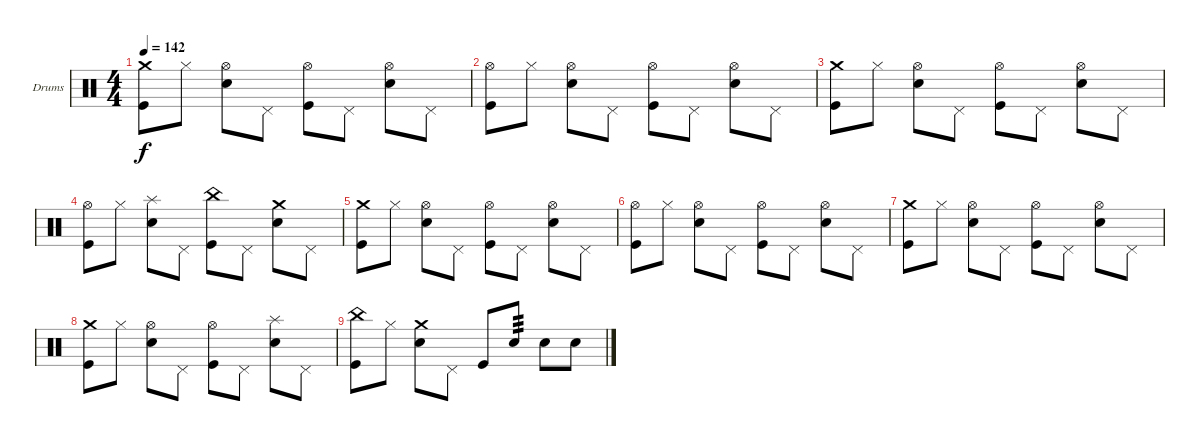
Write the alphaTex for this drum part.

\bracketExtendMode groupsimilarinstruments
\firstSystemTrackNameOrientation horizontal
\otherSystemsTrackNameOrientation horizontal
\track ("Drumkit" "Drums") {solo instrument percussion}
\staff {score}
\articulation defaults
\ts (4 4)
\tempo 142
\clef neutral
\ks c
("Crash medium (hit)" "Kick (hit)").8{dy f} "Hi-Hat (closed)".8 ("Hi-Hat (open)" "Snare (hit) 2").8 "Pedal Hi-Hat (hit)".8 ("Hi-Hat (open)" "Kick (hit)").8 "Pedal Hi-Hat (hit)".8 ("Hi-Hat (open)" "Snare (hit) 2").8 "Pedal Hi-Hat (hit)".8 |
("Hi-Hat (open)" "Kick (hit)").8 "Hi-Hat (closed)".8 ("Hi-Hat (open)" "Snare (hit) 2").8 "Pedal Hi-Hat (hit)".8 ("Hi-Hat (open)" "Kick (hit)").8 "Pedal Hi-Hat (hit)".8 ("Hi-Hat (open)" "Snare (hit) 2").8 "Pedal Hi-Hat (hit)".8 |
("Crash medium (hit)" "Kick (hit)").8 "Hi-Hat (closed)".8 ("Hi-Hat (open)" "Snare (hit) 2").8 "Pedal Hi-Hat (hit)".8 ("Hi-Hat (open)" "Kick (hit)").8 "Pedal Hi-Hat (hit)".8 ("Hi-Hat (open)" "Snare (hit) 2").8 "Pedal Hi-Hat (hit)".8 |
("Hi-Hat (open)" "Kick (hit)").8 "Hi-Hat (closed)".8 ("Splash (hit)" "Snare (hit) 2").8 "Pedal Hi-Hat (hit)".8 ("China (hit)" "Kick (hit)").8 "Pedal Hi-Hat (hit)".8 ("Crash medium (hit)" "Snare (hit) 2").8 "Pedal Hi-Hat (hit)".8 |
("Crash medium (hit)" "Kick (hit)").8 "Hi-Hat (closed)".8 ("Hi-Hat (open)" "Snare (hit) 2").8 "Pedal Hi-Hat (hit)".8 ("Hi-Hat (open)" "Kick (hit)").8 "Pedal Hi-Hat (hit)".8 ("Hi-Hat (open)" "Snare (hit) 2").8 "Pedal Hi-Hat (hit)".8 |
("Hi-Hat (open)" "Kick (hit)").8 "Hi-Hat (closed)".8 ("Hi-Hat (open)" "Snare (hit) 2").8 "Pedal Hi-Hat (hit)".8 ("Hi-Hat (open)" "Kick (hit)").8 "Pedal Hi-Hat (hit)".8 ("Hi-Hat (open)" "Snare (hit) 2").8 "Pedal Hi-Hat (hit)".8 |
("Crash medium (hit)" "Kick (hit)").8 "Hi-Hat (closed)".8 ("Hi-Hat (open)" "Snare (hit) 2").8 "Pedal Hi-Hat (hit)".8 ("Hi-Hat (open)" "Kick (hit)").8 "Pedal Hi-Hat (hit)".8 ("Hi-Hat (open)" "Snare (hit) 2").8 "Pedal Hi-Hat (hit)".8 |
("Crash medium (hit)" "Kick (hit)").8 "Hi-Hat (closed)".8 ("Hi-Hat (open)" "Snare (hit) 2").8 "Pedal Hi-Hat (hit)".8 ("Hi-Hat (open)" "Kick (hit)").8 "Pedal Hi-Hat (hit)".8 ("Splash (hit)" "Snare (hit) 2").8 "Pedal Hi-Hat (hit)".8 |
("China (hit)" "Kick (hit)").8 "Hi-Hat (closed)".8 ("Crash medium (hit)" "Snare (hit) 2").8 "Pedal Hi-Hat (hit)".8 "Kick (hit)".8 "Snare (hit) 2".8{tp 3} "Snare (hit) 2".8 "Snare (hit) 2".8
